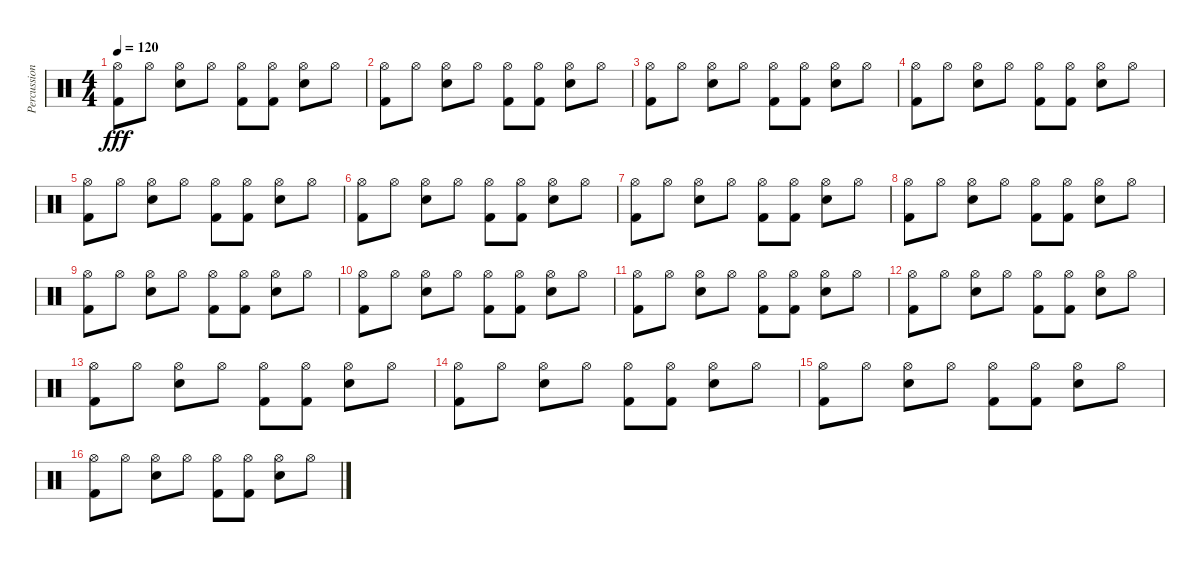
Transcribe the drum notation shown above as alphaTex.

\track ("Percussions" "Percussion") {instrument percussion}
\staff {score}
\articulation defaults
\ts (4 4)
\tempo 120
\clef neutral
\ks c
("Hi-Hat (open)" "Kick (hit) 2").8{dy fff} "Hi-Hat (open)".8 ("Hi-Hat (open)" "Electric Snare (hit)").8 "Hi-Hat (open)".8 ("Hi-Hat (open)" "Kick (hit) 2").8 ("Hi-Hat (open)" "Kick (hit) 2").8 ("Hi-Hat (open)" "Electric Snare (hit)").8 "Hi-Hat (open)".8 |
("Hi-Hat (open)" "Kick (hit) 2").8 "Hi-Hat (open)".8 ("Hi-Hat (open)" "Electric Snare (hit)").8 "Hi-Hat (open)".8 ("Hi-Hat (open)" "Kick (hit) 2").8 ("Hi-Hat (open)" "Kick (hit) 2").8 ("Hi-Hat (open)" "Electric Snare (hit)").8 "Hi-Hat (open)".8 |
("Hi-Hat (open)" "Kick (hit) 2").8 "Hi-Hat (open)".8 ("Hi-Hat (open)" "Electric Snare (hit)").8 "Hi-Hat (open)".8 ("Hi-Hat (open)" "Kick (hit) 2").8 ("Hi-Hat (open)" "Kick (hit) 2").8 ("Hi-Hat (open)" "Electric Snare (hit)").8 "Hi-Hat (open)".8 |
("Hi-Hat (open)" "Kick (hit) 2").8 "Hi-Hat (open)".8 ("Hi-Hat (open)" "Electric Snare (hit)").8 "Hi-Hat (open)".8 ("Hi-Hat (open)" "Kick (hit) 2").8 ("Hi-Hat (open)" "Kick (hit) 2").8 ("Hi-Hat (open)" "Electric Snare (hit)").8 "Hi-Hat (open)".8 |
("Hi-Hat (open)" "Kick (hit) 2").8 "Hi-Hat (open)".8 ("Hi-Hat (open)" "Electric Snare (hit)").8 "Hi-Hat (open)".8 ("Hi-Hat (open)" "Kick (hit) 2").8 ("Hi-Hat (open)" "Kick (hit) 2").8 ("Hi-Hat (open)" "Electric Snare (hit)").8 "Hi-Hat (open)".8 |
("Hi-Hat (open)" "Kick (hit) 2").8 "Hi-Hat (open)".8 ("Hi-Hat (open)" "Electric Snare (hit)").8 "Hi-Hat (open)".8 ("Hi-Hat (open)" "Kick (hit) 2").8 ("Hi-Hat (open)" "Kick (hit) 2").8 ("Hi-Hat (open)" "Electric Snare (hit)").8 "Hi-Hat (open)".8 |
("Hi-Hat (open)" "Kick (hit) 2").8 "Hi-Hat (open)".8 ("Hi-Hat (open)" "Electric Snare (hit)").8 "Hi-Hat (open)".8 ("Hi-Hat (open)" "Kick (hit) 2").8 ("Hi-Hat (open)" "Kick (hit) 2").8 ("Hi-Hat (open)" "Electric Snare (hit)").8 "Hi-Hat (open)".8 |
("Hi-Hat (open)" "Kick (hit) 2").8 "Hi-Hat (open)".8 ("Hi-Hat (open)" "Electric Snare (hit)").8 "Hi-Hat (open)".8 ("Hi-Hat (open)" "Kick (hit) 2").8 ("Hi-Hat (open)" "Kick (hit) 2").8 ("Hi-Hat (open)" "Electric Snare (hit)").8 "Hi-Hat (open)".8 |
("Hi-Hat (open)" "Kick (hit) 2").8 "Hi-Hat (open)".8 ("Hi-Hat (open)" "Electric Snare (hit)").8 "Hi-Hat (open)".8 ("Hi-Hat (open)" "Kick (hit) 2").8 ("Hi-Hat (open)" "Kick (hit) 2").8 ("Hi-Hat (open)" "Electric Snare (hit)").8 "Hi-Hat (open)".8 |
("Hi-Hat (open)" "Kick (hit) 2").8 "Hi-Hat (open)".8 ("Hi-Hat (open)" "Electric Snare (hit)").8 "Hi-Hat (open)".8 ("Hi-Hat (open)" "Kick (hit) 2").8 ("Hi-Hat (open)" "Kick (hit) 2").8 ("Hi-Hat (open)" "Electric Snare (hit)").8 "Hi-Hat (open)".8 |
("Hi-Hat (open)" "Kick (hit) 2").8 "Hi-Hat (open)".8 ("Hi-Hat (open)" "Electric Snare (hit)").8 "Hi-Hat (open)".8 ("Hi-Hat (open)" "Kick (hit) 2").8 ("Hi-Hat (open)" "Kick (hit) 2").8 ("Hi-Hat (open)" "Electric Snare (hit)").8 "Hi-Hat (open)".8 |
("Hi-Hat (open)" "Kick (hit) 2").8 "Hi-Hat (open)".8 ("Hi-Hat (open)" "Electric Snare (hit)").8 "Hi-Hat (open)".8 ("Hi-Hat (open)" "Kick (hit) 2").8 ("Hi-Hat (open)" "Kick (hit) 2").8 ("Hi-Hat (open)" "Electric Snare (hit)").8 "Hi-Hat (open)".8 |
("Hi-Hat (open)" "Kick (hit) 2").8 "Hi-Hat (open)".8 ("Hi-Hat (open)" "Electric Snare (hit)").8 "Hi-Hat (open)".8 ("Hi-Hat (open)" "Kick (hit) 2").8 ("Hi-Hat (open)" "Kick (hit) 2").8 ("Hi-Hat (open)" "Electric Snare (hit)").8 "Hi-Hat (open)".8 |
("Hi-Hat (open)" "Kick (hit) 2").8 "Hi-Hat (open)".8 ("Hi-Hat (open)" "Electric Snare (hit)").8 "Hi-Hat (open)".8 ("Hi-Hat (open)" "Kick (hit) 2").8 ("Hi-Hat (open)" "Kick (hit) 2").8 ("Hi-Hat (open)" "Electric Snare (hit)").8 "Hi-Hat (open)".8 |
("Hi-Hat (open)" "Kick (hit) 2").8 "Hi-Hat (open)".8 ("Hi-Hat (open)" "Electric Snare (hit)").8 "Hi-Hat (open)".8 ("Hi-Hat (open)" "Kick (hit) 2").8 ("Hi-Hat (open)" "Kick (hit) 2").8 ("Hi-Hat (open)" "Electric Snare (hit)").8 "Hi-Hat (open)".8 |
("Hi-Hat (open)" "Kick (hit) 2").8 "Hi-Hat (open)".8 ("Hi-Hat (open)" "Electric Snare (hit)").8 "Hi-Hat (open)".8 ("Hi-Hat (open)" "Kick (hit) 2").8 ("Hi-Hat (open)" "Kick (hit) 2").8 ("Hi-Hat (open)" "Electric Snare (hit)").8 "Hi-Hat (open)".8
